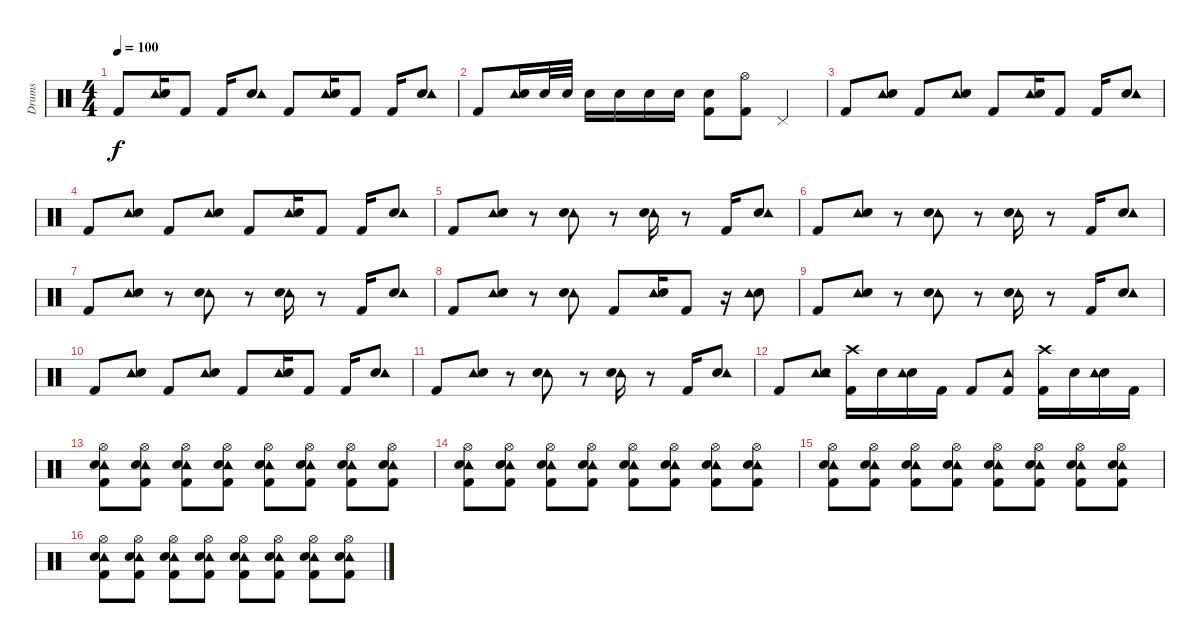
\track ("Drums" "Drums") {instrument percussion}
\staff {score}
\articulation defaults
\ts (4 4)
\tempo 100
\clef neutral
\ks c "Kick (hit) 2".8{dy f}
("Tambourine (hit)" "Electric Snare (hit)").16 "Kick (hit) 2".8 "Kick (hit) 2".16 ("Electric Snare (hit)" "Tambourine (hit)").8 "Kick (hit) 2".8 ("Tambourine (hit)" "Electric Snare (hit)").16 "Kick (hit) 2".8 "Kick (hit) 2".16 ("Electric Snare (hit)" "Tambourine (hit)").8 |
"Kick (hit) 2".8 ("Tambourine (hit)" "Electric Snare (hit)").16 "Electric Snare (hit)".32 "Electric Snare (hit)".32 "Electric Snare (hit)".16 "Electric Snare (hit)".16 "Electric Snare (hit)".16 "Electric Snare (hit)".16 ("Kick (hit) 2" "Electric Snare (hit)").8 ("Kick (hit) 2" "Hi-Hat (open)").8 "Pedal Hi-Hat (hit)".4 |
"Kick (hit) 2".8 ("Tambourine (hit)" "Electric Snare (hit)").8 "Kick (hit) 2".8 ("Tambourine (hit)" "Electric Snare (hit)").8 "Kick (hit) 2".8 ("Tambourine (hit)" "Electric Snare (hit)").16 "Kick (hit) 2".8 "Kick (hit) 2".16 ("Electric Snare (hit)" "Tambourine (hit)").8 |
"Kick (hit) 2".8 ("Tambourine (hit)" "Electric Snare (hit)").8 "Kick (hit) 2".8 ("Tambourine (hit)" "Electric Snare (hit)").8 "Kick (hit) 2".8 ("Tambourine (hit)" "Electric Snare (hit)").16 "Kick (hit) 2".8 "Kick (hit) 2".16 ("Electric Snare (hit)" "Tambourine (hit)").8 |
"Kick (hit) 2".8 ("Tambourine (hit)" "Electric Snare (hit)").8 r.8 ("Tambourine (hit)" "Electric Snare (hit)").8 r.8 ("Tambourine (hit)" "Electric Snare (hit)").16 r.8 "Kick (hit) 2".16 ("Electric Snare (hit)" "Tambourine (hit)").8 |
"Kick (hit) 2".8 ("Tambourine (hit)" "Electric Snare (hit)").8 r.8 ("Tambourine (hit)" "Electric Snare (hit)").8 r.8 ("Tambourine (hit)" "Electric Snare (hit)").16 r.8 "Kick (hit) 2".16 ("Electric Snare (hit)" "Tambourine (hit)").8 |
"Kick (hit) 2".8 ("Tambourine (hit)" "Electric Snare (hit)").8 r.8 ("Tambourine (hit)" "Electric Snare (hit)").8 r.8 ("Tambourine (hit)" "Electric Snare (hit)").16 r.8 "Kick (hit) 2".16 ("Electric Snare (hit)" "Tambourine (hit)").8 |
"Kick (hit) 2".8 ("Tambourine (hit)" "Electric Snare (hit)").8 r.8 ("Tambourine (hit)" "Electric Snare (hit)").8 "Kick (hit) 2".8 ("Tambourine (hit)" "Electric Snare (hit)").16 "Kick (hit) 2".8 r.16 ("Electric Snare (hit)" "Tambourine (hit)").8 |
"Kick (hit) 2".8 ("Tambourine (hit)" "Electric Snare (hit)").8 r.8 ("Tambourine (hit)" "Electric Snare (hit)").8 r.8 ("Tambourine (hit)" "Electric Snare (hit)").16 r.8 "Kick (hit) 2".16 ("Electric Snare (hit)" "Tambourine (hit)").8 |
"Kick (hit) 2".8 ("Tambourine (hit)" "Electric Snare (hit)").8 "Kick (hit) 2".8 ("Tambourine (hit)" "Electric Snare (hit)").8 "Kick (hit) 2".8 ("Tambourine (hit)" "Electric Snare (hit)").16 "Kick (hit) 2".8 "Kick (hit) 2".16 ("Electric Snare (hit)" "Tambourine (hit)").8 |
"Kick (hit) 2".8 ("Tambourine (hit)" "Electric Snare (hit)").8 r.8 ("Tambourine (hit)" "Electric Snare (hit)").8 r.8 ("Tambourine (hit)" "Electric Snare (hit)").16 r.8 "Kick (hit) 2".16 ("Electric Snare (hit)" "Tambourine (hit)").8 |
"Kick (hit) 2".8 ("Tambourine (hit)" "Electric Snare (hit)" "Tambourine (hit)").8 ("Kick (hit) 2" "Crash high (hit)").16 "Electric Snare (hit)".16 ("Electric Snare (hit)" "Tambourine (hit)").16 "Kick (hit) 2".16 "Kick (hit) 2".8 ("Kick (hit) 2" "Tambourine (hit)").8 ("Kick (hit) 2" "Crash high (hit)").16 "Electric Snare (hit)".16 ("Electric Snare (hit)" "Tambourine (hit)").16 "Kick (hit) 2".16 |
("Kick (hit) 2" "Tambourine (hit)" "Electric Snare (hit)" "Hi-Hat (open)").8 ("Kick (hit) 2" "Tambourine (hit)" "Electric Snare (hit)" "Hi-Hat (open)").8 ("Kick (hit) 2" "Tambourine (hit)" "Electric Snare (hit)" "Hi-Hat (open)").8 ("Kick (hit) 2" "Tambourine (hit)" "Electric Snare (hit)" "Hi-Hat (open)").8 ("Kick (hit) 2" "Tambourine (hit)" "Electric Snare (hit)" "Hi-Hat (open)").8 ("Kick (hit) 2" "Tambourine (hit)" "Electric Snare (hit)" "Hi-Hat (open)").8 ("Kick (hit) 2" "Tambourine (hit)" "Electric Snare (hit)" "Hi-Hat (open)").8 ("Kick (hit) 2" "Tambourine (hit)" "Electric Snare (hit)" "Hi-Hat (open)").8 |
("Kick (hit) 2" "Tambourine (hit)" "Electric Snare (hit)" "Hi-Hat (open)").8 ("Kick (hit) 2" "Tambourine (hit)" "Electric Snare (hit)" "Hi-Hat (open)").8 ("Kick (hit) 2" "Tambourine (hit)" "Electric Snare (hit)" "Hi-Hat (open)").8 ("Kick (hit) 2" "Tambourine (hit)" "Electric Snare (hit)" "Hi-Hat (open)").8 ("Kick (hit) 2" "Tambourine (hit)" "Electric Snare (hit)" "Hi-Hat (open)").8 ("Kick (hit) 2" "Tambourine (hit)" "Electric Snare (hit)" "Hi-Hat (open)").8 ("Kick (hit) 2" "Tambourine (hit)" "Electric Snare (hit)" "Hi-Hat (open)").8 ("Kick (hit) 2" "Tambourine (hit)" "Electric Snare (hit)" "Hi-Hat (open)").8 |
("Kick (hit) 2" "Tambourine (hit)" "Electric Snare (hit)" "Hi-Hat (open)").8 ("Kick (hit) 2" "Tambourine (hit)" "Electric Snare (hit)" "Hi-Hat (open)").8 ("Kick (hit) 2" "Tambourine (hit)" "Electric Snare (hit)" "Hi-Hat (open)").8 ("Kick (hit) 2" "Tambourine (hit)" "Electric Snare (hit)" "Hi-Hat (open)").8 ("Kick (hit) 2" "Tambourine (hit)" "Electric Snare (hit)" "Hi-Hat (open)").8 ("Kick (hit) 2" "Tambourine (hit)" "Electric Snare (hit)" "Hi-Hat (open)").8 ("Kick (hit) 2" "Tambourine (hit)" "Electric Snare (hit)" "Hi-Hat (open)").8 ("Kick (hit) 2" "Tambourine (hit)" "Electric Snare (hit)" "Hi-Hat (open)").8 |
("Kick (hit) 2" "Tambourine (hit)" "Electric Snare (hit)" "Hi-Hat (open)").8 ("Kick (hit) 2" "Tambourine (hit)" "Electric Snare (hit)" "Hi-Hat (open)").8 ("Kick (hit) 2" "Tambourine (hit)" "Electric Snare (hit)" "Hi-Hat (open)").8 ("Kick (hit) 2" "Tambourine (hit)" "Electric Snare (hit)" "Hi-Hat (open)").8 ("Kick (hit) 2" "Tambourine (hit)" "Electric Snare (hit)" "Hi-Hat (open)").8 ("Kick (hit) 2" "Tambourine (hit)" "Electric Snare (hit)" "Hi-Hat (open)").8 ("Kick (hit) 2" "Tambourine (hit)" "Electric Snare (hit)" "Hi-Hat (open)").8 ("Kick (hit) 2" "Tambourine (hit)" "Electric Snare (hit)" "Hi-Hat (open)").8
